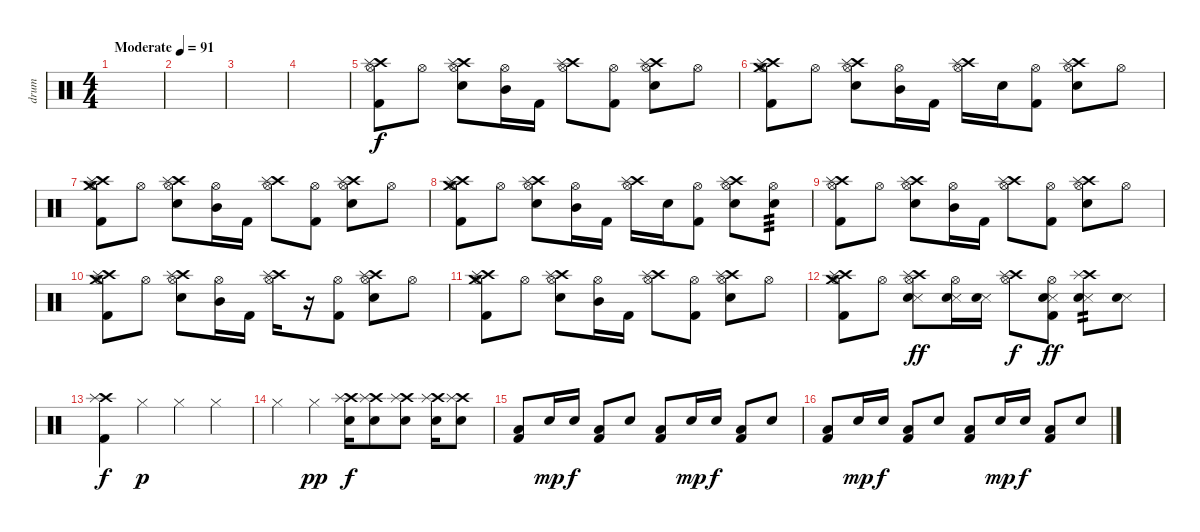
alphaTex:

\track ("drum" "drum") {instrument percussion}
\staff {score}
\articulation defaults
\ts (4 4)
\tempo (91 "Moderate")
\clef neutral
\ks c
|
|
|
|
("Crash high (hit)" "Splash (hit)" "Kick (hit) 2" "Hi-Hat (open)").8 "Hi-Hat (open)".8 ("Crash high (hit)" "Splash (hit)" "Electric Snare (hit)" "Hi-Hat (open)").8 ("Mid Tom (hit)" "Hi-Hat (open)").16 "Kick (hit) 2".16 ("Crash high (hit)" "Splash (hit)" "Hi-Hat (open)").8 ("Kick (hit) 2" "Hi-Hat (open)").8 ("Crash high (hit)" "Splash (hit)" "Electric Snare (hit)" "Hi-Hat (open)").8 "Hi-Hat (open)".8 |
("Crash high (hit)" "Splash (hit)" "Crash medium (hit)" "Kick (hit) 2" "Hi-Hat (open)").8 "Hi-Hat (open)".8 ("Crash high (hit)" "Splash (hit)" "Electric Snare (hit)" "Hi-Hat (open)").8 ("Mid Tom (hit)" "Hi-Hat (open)").16 "Kick (hit) 2".16 ("Crash high (hit)" "Splash (hit)" "Hi-Hat (open)").16 "Electric Snare (hit)".16 ("Kick (hit) 2" "Hi-Hat (open)").8 ("Crash high (hit)" "Splash (hit)" "Electric Snare (hit)" "Hi-Hat (open)").8 "Hi-Hat (open)".8 |
("Crash high (hit)" "Splash (hit)" "Crash medium (hit)" "Kick (hit) 2" "Hi-Hat (open)").8 "Hi-Hat (open)".8 ("Crash high (hit)" "Splash (hit)" "Electric Snare (hit)" "Hi-Hat (open)").8 ("Mid Tom (hit)" "Hi-Hat (open)").16 "Kick (hit) 2".16 ("Crash high (hit)" "Splash (hit)" "Hi-Hat (open)").8 ("Kick (hit) 2" "Hi-Hat (open)").8 ("Crash high (hit)" "Splash (hit)" "Electric Snare (hit)" "Hi-Hat (open)").8 "Hi-Hat (open)".8 |
("Crash high (hit)" "Splash (hit)" "Crash medium (hit)" "Kick (hit) 2" "Hi-Hat (open)").8 "Hi-Hat (open)".8 ("Crash high (hit)" "Splash (hit)" "Electric Snare (hit)" "Hi-Hat (open)").8 ("Mid Tom (hit)" "Hi-Hat (open)").16 "Kick (hit) 2".16 ("Crash high (hit)" "Splash (hit)" "Hi-Hat (open)").16 "Electric Snare (hit)".16 ("Kick (hit) 2" "Hi-Hat (open)").8 ("Crash high (hit)" "Splash (hit)" "Electric Snare (hit)" "Hi-Hat (open)").8 ("Electric Snare (hit)" "Hi-Hat (open)").8{tp 3} |
("Crash high (hit)" "Splash (hit)" "Kick (hit) 2" "Hi-Hat (open)").8 "Hi-Hat (open)".8 ("Crash high (hit)" "Splash (hit)" "Electric Snare (hit)" "Hi-Hat (open)").8 ("Mid Tom (hit)" "Hi-Hat (open)").16 "Kick (hit) 2".16 ("Crash high (hit)" "Splash (hit)" "Hi-Hat (open)").8 ("Kick (hit) 2" "Hi-Hat (open)").8 ("Crash high (hit)" "Splash (hit)" "Electric Snare (hit)" "Hi-Hat (open)").8 "Hi-Hat (open)".8 |
("Crash high (hit)" "Splash (hit)" "Crash medium (hit)" "Kick (hit) 2" "Hi-Hat (open)").8 "Hi-Hat (open)".8 ("Crash high (hit)" "Splash (hit)" "Electric Snare (hit)" "Hi-Hat (open)").8 ("Mid Tom (hit)" "Hi-Hat (open)").16 "Kick (hit) 2".16 ("Crash high (hit)" "Splash (hit)" "Hi-Hat (open)").16 r.16 ("Kick (hit) 2" "Hi-Hat (open)").8 ("Crash high (hit)" "Splash (hit)" "Electric Snare (hit)" "Hi-Hat (open)").8 "Hi-Hat (open)".8 |
("Crash high (hit)" "Splash (hit)" "Crash medium (hit)" "Kick (hit) 2" "Hi-Hat (open)").8 "Hi-Hat (open)".8 ("Crash high (hit)" "Splash (hit)" "Electric Snare (hit)" "Hi-Hat (open)").8 ("Mid Tom (hit)" "Hi-Hat (open)").16 "Kick (hit) 2".16 ("Crash high (hit)" "Splash (hit)" "Hi-Hat (open)").8 ("Kick (hit) 2" "Hi-Hat (open)").8 ("Crash high (hit)" "Splash (hit)" "Electric Snare (hit)" "Hi-Hat (open)").8 "Hi-Hat (open)".8 |
("Crash high (hit)" "Splash (hit)" "Crash medium (hit)" "Kick (hit) 2" "Hi-Hat (open)").8 "Hi-Hat (open)".8 ("Crash high (hit)" "Splash (hit)" "Snare (side stick) 3" "Electric Snare (hit)" "Hi-Hat (open)").8{dy ff} ("Snare (side stick) 3" "Electric Snare (hit)" "Hi-Hat (open)").16 ("Snare (side stick) 3" "Electric Snare (hit)").16 ("Crash high (hit)" "Splash (hit)" "Hi-Hat (open)").8{dy f} ("Snare (side stick) 3" "Electric Snare (hit)" "Kick (hit) 2" "Hi-Hat (open)").8{dy ff} ("Crash high (hit)" "Splash (hit)" "Snare (side stick) 3" "Electric Snare (hit)").8{tp 2} ("Snare (side stick) 3" "Electric Snare (hit)").8 |
("Crash high (hit)" "Splash (hit)" "Kick (hit) 2").4{dy f} "Hi-Hat (closed)".4{dy p} "Hi-Hat (closed)".4 "Hi-Hat (closed)".4 |
"Hi-Hat (closed)".4 "Hi-Hat (closed)".4{dy pp} ("Crash high (hit)" "Splash (hit)" "Electric Snare (hit)").16{dy f} ("Crash high (hit)" "Splash (hit)" "Electric Snare (hit)").8 ("Crash high (hit)" "Splash (hit)" "Electric Snare (hit)").8 ("Crash high (hit)" "Splash (hit)" "Electric Snare (hit)").16 ("Crash high (hit)" "Splash (hit)" "Electric Snare (hit)").8 |
("Low Floor Tom (hit)" "Kick (hit) 2").8 "Electric Snare (hit)".16{dy mp} "Electric Snare (hit)".16{dy f} ("Low Floor Tom (hit)" "Kick (hit) 2").8 "Electric Snare (hit)".8 ("Low Floor Tom (hit)" "Kick (hit) 2").8 "Electric Snare (hit)".16{dy mp} "Electric Snare (hit)".16{dy f} ("Low Floor Tom (hit)" "Kick (hit) 2").8 "Electric Snare (hit)".8 |
("Low Floor Tom (hit)" "Kick (hit) 2").8 "Electric Snare (hit)".16{dy mp} "Electric Snare (hit)".16{dy f} ("Low Floor Tom (hit)" "Kick (hit) 2").8 "Electric Snare (hit)".8 ("Low Floor Tom (hit)" "Kick (hit) 2").8 "Electric Snare (hit)".16{dy mp} "Electric Snare (hit)".16{dy f} ("Low Floor Tom (hit)" "Kick (hit) 2").8 "Electric Snare (hit)".8
